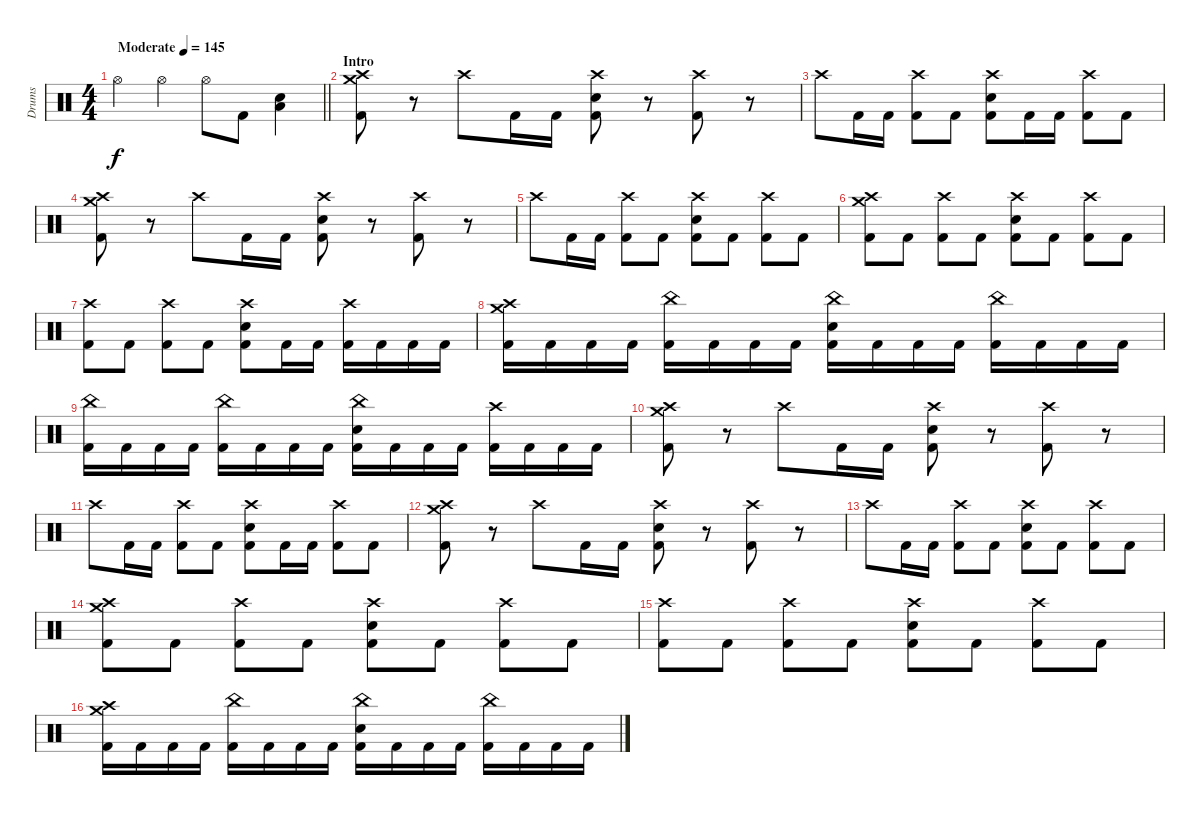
\track ("Drums" "Drums") {instrument percussion}
\staff {score}
\articulation defaults
\ts (4 4)
\tempo (145 "Moderate")
\clef neutral
\barLineRight lightlight
\ks c "Hi-Hat (open)".4{dy f} "Hi-Hat (open)".4 "Hi-Hat (open)".8 "Kick (hit) 2".8
("Low Floor Tom (hit)" "Electric Snare (hit)").4 |
\section ("" "Intro")
("Crash medium (hit)" "Crash high (hit)" "Kick (hit) 2").8 r.8 "Crash high (hit)".8 "Kick (hit) 2".16 "Kick (hit) 2".16 ("Crash high (hit)" "Electric Snare (hit)" "Kick (hit) 2").8 r.8 ("Crash high (hit)" "Kick (hit) 2").8 r.8 |
"Crash high (hit)".8 "Kick (hit) 2".16 "Kick (hit) 2".16 ("Crash high (hit)" "Kick (hit) 2").8 "Kick (hit) 2".8 ("Crash high (hit)" "Electric Snare (hit)" "Kick (hit) 2").8 "Kick (hit) 2".16 "Kick (hit) 2".16 ("Crash high (hit)" "Kick (hit) 2").8 "Kick (hit) 2".8 |
("Crash medium (hit)" "Crash high (hit)" "Kick (hit) 2").8 r.8 "Crash high (hit)".8 "Kick (hit) 2".16 "Kick (hit) 2".16 ("Crash high (hit)" "Electric Snare (hit)" "Kick (hit) 2").8 r.8 ("Crash high (hit)" "Kick (hit) 2").8 r.8 |
"Crash high (hit)".8 "Kick (hit) 2".16 "Kick (hit) 2".16 ("Crash high (hit)" "Kick (hit) 2").8 "Kick (hit) 2".8 ("Crash high (hit)" "Electric Snare (hit)" "Kick (hit) 2").8 "Kick (hit) 2".8 ("Crash high (hit)" "Kick (hit) 2").8 "Kick (hit) 2".8 |
("Crash medium (hit)" "Crash high (hit)" "Kick (hit) 2").8 "Kick (hit) 2".8 ("Crash high (hit)" "Kick (hit) 2").8 "Kick (hit) 2".8 ("Crash high (hit)" "Electric Snare (hit)" "Kick (hit) 2").8 "Kick (hit) 2".8 ("Crash high (hit)" "Kick (hit) 2").8 "Kick (hit) 2".8 |
("Crash high (hit)" "Kick (hit) 2").8 "Kick (hit) 2".8 ("Crash high (hit)" "Kick (hit) 2").8 "Kick (hit) 2".8 ("Crash high (hit)" "Electric Snare (hit)" "Kick (hit) 2").8 "Kick (hit) 2".16 "Kick (hit) 2".16 ("Crash high (hit)" "Kick (hit) 2").16 "Kick (hit) 2".16 "Kick (hit) 2".16 "Kick (hit) 2".16 |
("Crash medium (hit)" "Crash high (hit)" "Kick (hit) 2").16 "Kick (hit) 2".16 "Kick (hit) 2".16 "Kick (hit) 2".16 ("China (hit)" "Kick (hit) 2").16 "Kick (hit) 2".16 "Kick (hit) 2".16 "Kick (hit) 2".16 ("China (hit)" "Electric Snare (hit)" "Kick (hit) 2").16 "Kick (hit) 2".16 "Kick (hit) 2".16 "Kick (hit) 2".16 ("China (hit)" "Kick (hit) 2").16 "Kick (hit) 2".16 "Kick (hit) 2".16 "Kick (hit) 2".16 |
("China (hit)" "Kick (hit) 2").16 "Kick (hit) 2".16 "Kick (hit) 2".16 "Kick (hit) 2".16 ("China (hit)" "Kick (hit) 2").16 "Kick (hit) 2".16 "Kick (hit) 2".16 "Kick (hit) 2".16 ("China (hit)" "Electric Snare (hit)" "Kick (hit) 2").16 "Kick (hit) 2".16 "Kick (hit) 2".16 "Kick (hit) 2".16 ("Crash high (hit)" "Kick (hit) 2").16 "Kick (hit) 2".16 "Kick (hit) 2".16 "Kick (hit) 2".16 |
("Crash medium (hit)" "Crash high (hit)" "Kick (hit) 2").8 r.8 "Crash high (hit)".8 "Kick (hit) 2".16 "Kick (hit) 2".16 ("Crash high (hit)" "Electric Snare (hit)" "Kick (hit) 2").8 r.8 ("Crash high (hit)" "Kick (hit) 2").8 r.8 |
"Crash high (hit)".8 "Kick (hit) 2".16 "Kick (hit) 2".16 ("Crash high (hit)" "Kick (hit) 2").8 "Kick (hit) 2".8 ("Crash high (hit)" "Electric Snare (hit)" "Kick (hit) 2").8 "Kick (hit) 2".16 "Kick (hit) 2".16 ("Crash high (hit)" "Kick (hit) 2").8 "Kick (hit) 2".8 |
("Crash medium (hit)" "Crash high (hit)" "Kick (hit) 2").8 r.8 "Crash high (hit)".8 "Kick (hit) 2".16 "Kick (hit) 2".16 ("Crash high (hit)" "Electric Snare (hit)" "Kick (hit) 2").8 r.8 ("Crash high (hit)" "Kick (hit) 2").8 r.8 |
"Crash high (hit)".8 "Kick (hit) 2".16 "Kick (hit) 2".16 ("Crash high (hit)" "Kick (hit) 2").8 "Kick (hit) 2".8 ("Crash high (hit)" "Electric Snare (hit)" "Kick (hit) 2").8 "Kick (hit) 2".8 ("Crash high (hit)" "Kick (hit) 2").8 "Kick (hit) 2".8 |
("Crash medium (hit)" "Crash high (hit)" "Kick (hit) 2").8 "Kick (hit) 2".8 ("Crash high (hit)" "Kick (hit) 2").8 "Kick (hit) 2".8 ("Crash high (hit)" "Electric Snare (hit)" "Kick (hit) 2").8 "Kick (hit) 2".8 ("Crash high (hit)" "Kick (hit) 2").8 "Kick (hit) 2".8 |
("Crash high (hit)" "Kick (hit) 2").8 "Kick (hit) 2".8 ("Crash high (hit)" "Kick (hit) 2").8 "Kick (hit) 2".8 ("Crash high (hit)" "Electric Snare (hit)" "Kick (hit) 2").8 "Kick (hit) 2".8 ("Crash high (hit)" "Kick (hit) 2").8 "Kick (hit) 2".8 |
("Crash medium (hit)" "Crash high (hit)" "Kick (hit) 2").16 "Kick (hit) 2".16 "Kick (hit) 2".16 "Kick (hit) 2".16 ("China (hit)" "Kick (hit) 2").16 "Kick (hit) 2".16 "Kick (hit) 2".16 "Kick (hit) 2".16 ("China (hit)" "Electric Snare (hit)" "Kick (hit) 2").16 "Kick (hit) 2".16 "Kick (hit) 2".16 "Kick (hit) 2".16 ("China (hit)" "Kick (hit) 2").16 "Kick (hit) 2".16 "Kick (hit) 2".16 "Kick (hit) 2".16
